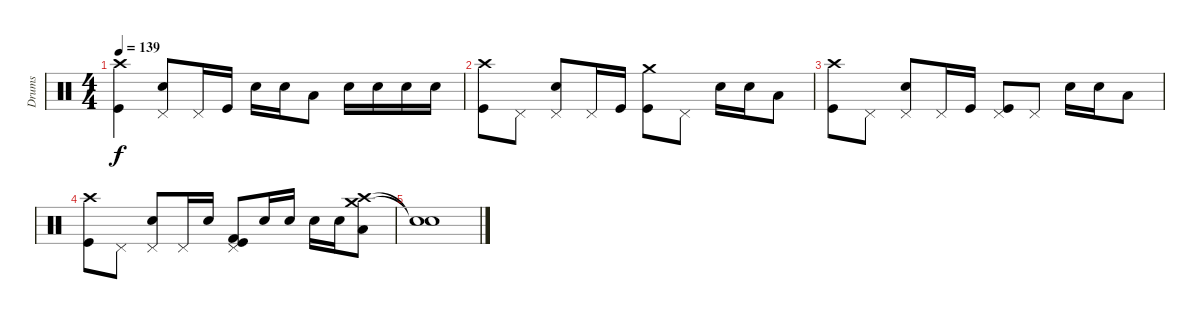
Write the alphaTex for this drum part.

\track ("Drums" "Drums") {instrument percussion}
\staff {score}
\articulation defaults
\ts (4 4)
\tempo 139
\clef neutral
\ks c
("Crash high (hit)" "Kick (hit)").4{dy f} ("Pedal Hi-Hat (hit)" "Electric Snare (hit)").8 "Pedal Hi-Hat (hit)".16 "Kick (hit)".16 "Electric Snare (hit)".16 "Electric Snare (hit)".16 "Low Tom (hit)".8 "Electric Snare (hit)".16 "Electric Snare (hit)".16 "Electric Snare (hit)".16 "Electric Snare (hit)".16 |
("Crash high (hit)" "Kick (hit)").8 "Pedal Hi-Hat (hit)".8 ("Pedal Hi-Hat (hit)" "Electric Snare (hit)").8 "Pedal Hi-Hat (hit)".16 "Kick (hit)".16 ("Crash medium (hit)" "Kick (hit)").8 "Pedal Hi-Hat (hit)".8 "Electric Snare (hit)".16 "Electric Snare (hit)".16 "Low Tom (hit)".8 |
("Crash high (hit)" "Kick (hit)").8 "Pedal Hi-Hat (hit)".8 ("Pedal Hi-Hat (hit)" "Electric Snare (hit)").8 "Pedal Hi-Hat (hit)".16 "Kick (hit)".16 ("Pedal Hi-Hat (hit)" "Kick (hit)").8 "Pedal Hi-Hat (hit)".8 "Electric Snare (hit)".16 "Electric Snare (hit)".16 "Low Tom (hit)".8 |
("Crash high (hit)" "Kick (hit)").8 "Pedal Hi-Hat (hit)".8 ("Pedal Hi-Hat (hit)" "Electric Snare (hit)").8 "Pedal Hi-Hat (hit)".16 "Electric Snare (hit)".16 ("Pedal Hi-Hat (hit)" "Kick (hit)" "Kick (hit) 2").8 "Electric Snare (hit)".16 "Electric Snare (hit)".16 "Electric Snare (hit)".16 "Electric Snare (hit)".16 ("Crash high (hit)" "Crash medium (hit)" "Low Tom (hit)").8 |
("Snare (hit)"{t} "Snare (hit)"{t}).1
